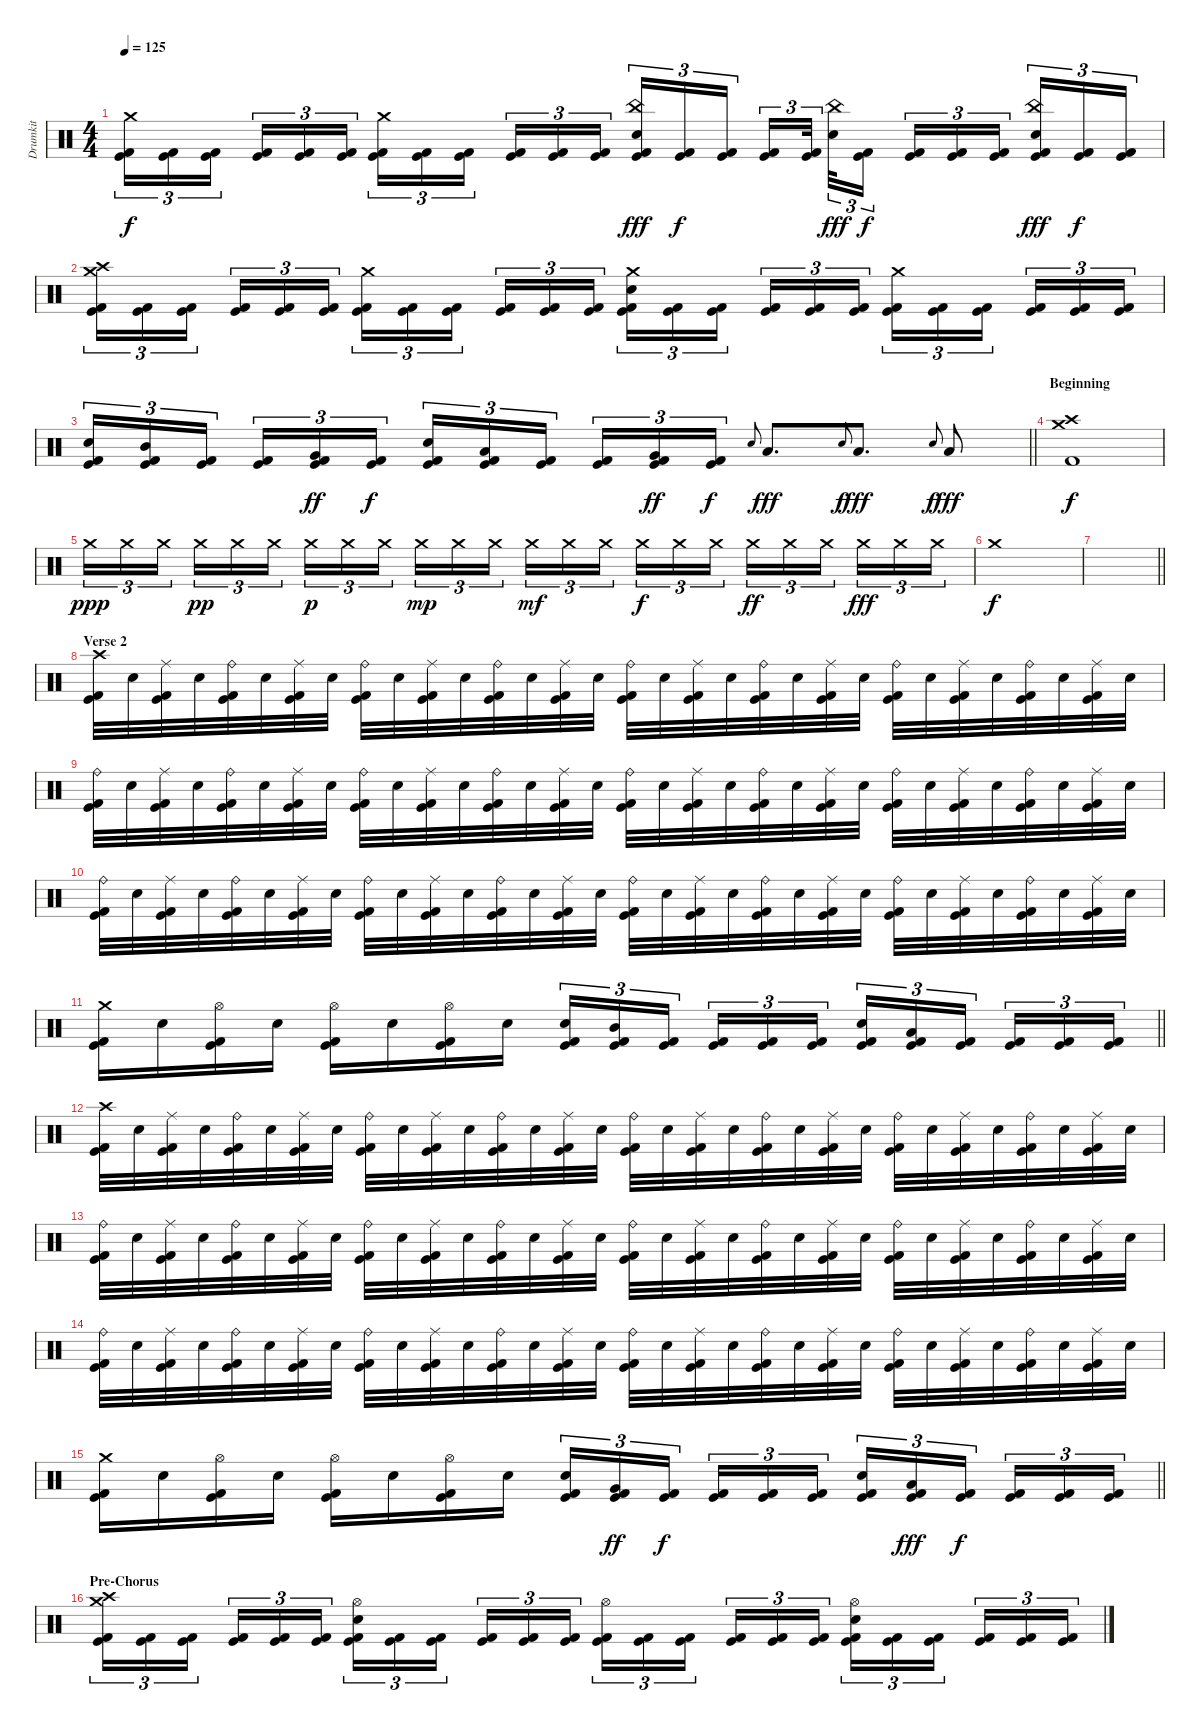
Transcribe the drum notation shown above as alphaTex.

\track ("Drumkit" "Drumkit") {instrument percussion}
\staff {score}
\articulation defaults
\ts (4 4)
\tempo 125
\clef neutral
\ks c
("Crash medium (hit)" "Kick (hit)" "Kick (hit) 2").16{tu (3 2) dy f} ("Kick (hit)" "Kick (hit) 2").16{tu (3 2)} ("Kick (hit)" "Kick (hit) 2").16{tu (3 2) beam splitsecondary} ("Kick (hit)" "Kick (hit) 2").16{tu (3 2)} ("Kick (hit)" "Kick (hit) 2").16{tu (3 2)} ("Kick (hit)" "Kick (hit) 2").16{tu (3 2)} ("Crash medium (hit)" "Kick (hit)" "Kick (hit) 2").16{tu (3 2)} ("Kick (hit)" "Kick (hit) 2").16{tu (3 2)} ("Kick (hit)" "Kick (hit) 2").16{tu (3 2) beam splitsecondary} ("Kick (hit)" "Kick (hit) 2").16{tu (3 2)} ("Kick (hit)" "Kick (hit) 2").16{tu (3 2)} ("Kick (hit)" "Kick (hit) 2").16{tu (3 2)} ("China (hit)" "Electric Snare (hit)" "Kick (hit)" "Kick (hit) 2").16{tu (3 2) dy fff} ("Kick (hit)" "Kick (hit) 2").16{tu (3 2) dy f} ("Kick (hit)" "Kick (hit) 2").16{tu (3 2) beam splitsecondary} ("Kick (hit)" "Kick (hit) 2").16{tu (3 2)} ("Kick (hit)" "Kick (hit) 2").32{tu (3 2) beam splitsecondary} ("China (hit)" "Electric Snare (hit)").32{tu (3 2) dy fff} ("Kick (hit)" "Kick (hit) 2").16{tu (3 2) dy f} ("Kick (hit)" "Kick (hit) 2").16{tu (3 2)} ("Kick (hit)" "Kick (hit) 2").16{tu (3 2)} ("Kick (hit)" "Kick (hit) 2").16{tu (3 2) beam splitsecondary} ("China (hit)" "Electric Snare (hit)" "Kick (hit)" "Kick (hit) 2").16{tu (3 2) dy fff} ("Kick (hit)" "Kick (hit) 2").16{tu (3 2) dy f} ("Kick (hit)" "Kick (hit) 2").16{tu (3 2)} |
("Crash high (hit)" "Crash medium (hit)" "Kick (hit)" "Kick (hit) 2").16{tu (3 2)} ("Kick (hit)" "Kick (hit) 2").16{tu (3 2)} ("Kick (hit)" "Kick (hit) 2").16{tu (3 2) beam splitsecondary} ("Kick (hit)" "Kick (hit) 2").16{tu (3 2)} ("Kick (hit)" "Kick (hit) 2").16{tu (3 2)} ("Kick (hit)" "Kick (hit) 2").16{tu (3 2)} ("Crash medium (hit)" "Kick (hit)" "Kick (hit) 2").16{tu (3 2)} ("Kick (hit)" "Kick (hit) 2").16{tu (3 2)} ("Kick (hit)" "Kick (hit) 2").16{tu (3 2) beam splitsecondary} ("Kick (hit)" "Kick (hit) 2").16{tu (3 2)} ("Kick (hit)" "Kick (hit) 2").16{tu (3 2)} ("Kick (hit)" "Kick (hit) 2").16{tu (3 2)} ("Crash medium (hit)" "Electric Snare (hit)" "Kick (hit)" "Kick (hit) 2").16{tu (3 2)} ("Kick (hit)" "Kick (hit) 2").16{tu (3 2)} ("Kick (hit)" "Kick (hit) 2").16{tu (3 2) beam splitsecondary} ("Kick (hit)" "Kick (hit) 2").16{tu (3 2)} ("Kick (hit)" "Kick (hit) 2").16{tu (3 2)} ("Kick (hit)" "Kick (hit) 2").16{tu (3 2)} ("Crash medium (hit)" "Kick (hit)" "Kick (hit) 2").16{tu (3 2)} ("Kick (hit)" "Kick (hit) 2").16{tu (3 2)} ("Kick (hit)" "Kick (hit) 2").16{tu (3 2) beam splitsecondary} ("Kick (hit)" "Kick (hit) 2").16{tu (3 2)} ("Kick (hit)" "Kick (hit) 2").16{tu (3 2)} ("Kick (hit)" "Kick (hit) 2").16{tu (3 2)} |
\barLineRight lightlight
("Electric Snare (hit)" "Kick (hit)" "Kick (hit) 2").16{tu (3 2)} ("Mid Tom (hit)" "Kick (hit)" "Kick (hit) 2").16{tu (3 2)} ("Kick (hit)" "Kick (hit) 2").16{tu (3 2) beam splitsecondary} ("Kick (hit)" "Kick (hit) 2").16{tu (3 2)} ("Very Low Tom (hit)" "Kick (hit)" "Kick (hit) 2").16{tu (3 2) dy ff} ("Kick (hit)" "Kick (hit) 2").16{tu (3 2) dy f} ("Electric Snare (hit)" "Kick (hit)" "Kick (hit) 2").16{tu (3 2)} ("Low Tom (hit)" "Kick (hit)" "Kick (hit) 2").16{tu (3 2)} ("Kick (hit)" "Kick (hit) 2").16{tu (3 2) beam splitsecondary} ("Kick (hit)" "Kick (hit) 2").16{tu (3 2)} ("Very Low Tom (hit)" "Kick (hit)" "Kick (hit) 2").16{tu (3 2) dy ff} ("Kick (hit)" "Kick (hit) 2").16{tu (3 2) dy f} "Electric Snare (hit)".8{gr onbeat} "Low Floor Tom (hit)".8{d dy fff} "Electric Snare (hit)".8{gr onbeat dy f} "Low Floor Tom (hit)".8{d dy fff} "Electric Snare (hit)".8{gr onbeat dy f} "Low Floor Tom (hit)".8{dy fff} |
\section ("" "Beginning")
("Crash high (hit)" "Crash medium (hit)" "Kick (hit) 2").1{dy f} |
"Crash medium (hit)".16{tu (3 2) dy ppp} "Crash medium (hit)".16{tu (3 2)} "Crash medium (hit)".16{tu (3 2) beam splitsecondary} "Crash medium (hit)".16{tu (3 2) dy pp} "Crash medium (hit)".16{tu (3 2)} "Crash medium (hit)".16{tu (3 2)} "Crash medium (hit)".16{tu (3 2) dy p} "Crash medium (hit)".16{tu (3 2)} "Crash medium (hit)".16{tu (3 2) beam splitsecondary} "Crash medium (hit)".16{tu (3 2) dy mp} "Crash medium (hit)".16{tu (3 2)} "Crash medium (hit)".16{tu (3 2)} "Crash medium (hit)".16{tu (3 2) dy mf} "Crash medium (hit)".16{tu (3 2)} "Crash medium (hit)".16{tu (3 2) beam splitsecondary} "Crash medium (hit)".16{tu (3 2) dy f} "Crash medium (hit)".16{tu (3 2)} "Crash medium (hit)".16{tu (3 2)} "Crash medium (hit)".16{tu (3 2) dy ff} "Crash medium (hit)".16{tu (3 2)} "Crash medium (hit)".16{tu (3 2) beam splitsecondary} "Crash medium (hit)".16{tu (3 2) dy fff} "Crash medium (hit)".16{tu (3 2)} "Crash medium (hit)".16{tu (3 2)} |
"Crash medium (hit)".1{dy f} |
\barLineRight lightlight
|
\section ("" "Verse 2")
("Crash high (hit)" "Kick (hit)" "Kick (hit) 2").32 "Electric Snare (hit)".32 ("Ride (middle)" "Kick (hit)" "Kick (hit) 2").32 "Electric Snare (hit)".32 ("Ride (bell)" "Kick (hit)" "Kick (hit) 2").32 "Electric Snare (hit)".32 ("Ride (middle)" "Kick (hit)" "Kick (hit) 2").32 "Electric Snare (hit)".32 ("Ride (bell)" "Kick (hit)" "Kick (hit) 2").32 "Electric Snare (hit)".32 ("Ride (middle)" "Kick (hit)" "Kick (hit) 2").32 "Electric Snare (hit)".32 ("Ride (bell)" "Kick (hit)" "Kick (hit) 2").32 "Electric Snare (hit)".32 ("Ride (middle)" "Kick (hit)" "Kick (hit) 2").32 "Electric Snare (hit)".32 ("Ride (bell)" "Kick (hit)" "Kick (hit) 2").32 "Electric Snare (hit)".32 ("Ride (middle)" "Kick (hit)" "Kick (hit) 2").32 "Electric Snare (hit)".32 ("Ride (bell)" "Kick (hit)" "Kick (hit) 2").32 "Electric Snare (hit)".32 ("Ride (middle)" "Kick (hit)" "Kick (hit) 2").32 "Electric Snare (hit)".32 ("Ride (bell)" "Kick (hit)" "Kick (hit) 2").32 "Electric Snare (hit)".32 ("Ride (middle)" "Kick (hit)" "Kick (hit) 2").32 "Electric Snare (hit)".32 ("Ride (bell)" "Kick (hit)" "Kick (hit) 2").32 "Electric Snare (hit)".32 ("Ride (middle)" "Kick (hit)" "Kick (hit) 2").32 "Electric Snare (hit)".32 |
("Ride (bell)" "Kick (hit)" "Kick (hit) 2").32 "Electric Snare (hit)".32 ("Ride (middle)" "Kick (hit)" "Kick (hit) 2").32 "Electric Snare (hit)".32 ("Ride (bell)" "Kick (hit)" "Kick (hit) 2").32 "Electric Snare (hit)".32 ("Ride (middle)" "Kick (hit)" "Kick (hit) 2").32 "Electric Snare (hit)".32 ("Ride (bell)" "Kick (hit)" "Kick (hit) 2").32 "Electric Snare (hit)".32 ("Ride (middle)" "Kick (hit)" "Kick (hit) 2").32 "Electric Snare (hit)".32 ("Ride (bell)" "Kick (hit)" "Kick (hit) 2").32 "Electric Snare (hit)".32 ("Ride (middle)" "Kick (hit)" "Kick (hit) 2").32 "Electric Snare (hit)".32 ("Ride (bell)" "Kick (hit)" "Kick (hit) 2").32 "Electric Snare (hit)".32 ("Ride (middle)" "Kick (hit)" "Kick (hit) 2").32 "Electric Snare (hit)".32 ("Ride (bell)" "Kick (hit)" "Kick (hit) 2").32 "Electric Snare (hit)".32 ("Ride (middle)" "Kick (hit)" "Kick (hit) 2").32 "Electric Snare (hit)".32 ("Ride (bell)" "Kick (hit)" "Kick (hit) 2").32 "Electric Snare (hit)".32 ("Ride (middle)" "Kick (hit)" "Kick (hit) 2").32 "Electric Snare (hit)".32 ("Ride (bell)" "Kick (hit)" "Kick (hit) 2").32 "Electric Snare (hit)".32 ("Ride (middle)" "Kick (hit)" "Kick (hit) 2").32 "Electric Snare (hit)".32 |
("Ride (bell)" "Kick (hit)" "Kick (hit) 2").32 "Electric Snare (hit)".32 ("Ride (middle)" "Kick (hit)" "Kick (hit) 2").32 "Electric Snare (hit)".32 ("Ride (bell)" "Kick (hit)" "Kick (hit) 2").32 "Electric Snare (hit)".32 ("Ride (middle)" "Kick (hit)" "Kick (hit) 2").32 "Electric Snare (hit)".32 ("Ride (bell)" "Kick (hit)" "Kick (hit) 2").32 "Electric Snare (hit)".32 ("Ride (middle)" "Kick (hit)" "Kick (hit) 2").32 "Electric Snare (hit)".32 ("Ride (bell)" "Kick (hit)" "Kick (hit) 2").32 "Electric Snare (hit)".32 ("Ride (middle)" "Kick (hit)" "Kick (hit) 2").32 "Electric Snare (hit)".32 ("Ride (bell)" "Kick (hit)" "Kick (hit) 2").32 "Electric Snare (hit)".32 ("Ride (middle)" "Kick (hit)" "Kick (hit) 2").32 "Electric Snare (hit)".32 ("Ride (bell)" "Kick (hit)" "Kick (hit) 2").32 "Electric Snare (hit)".32 ("Ride (middle)" "Kick (hit)" "Kick (hit) 2").32 "Electric Snare (hit)".32 ("Ride (bell)" "Kick (hit)" "Kick (hit) 2").32 "Electric Snare (hit)".32 ("Ride (middle)" "Kick (hit)" "Kick (hit) 2").32 "Electric Snare (hit)".32 ("Ride (bell)" "Kick (hit)" "Kick (hit) 2").32 "Electric Snare (hit)".32 ("Ride (middle)" "Kick (hit)" "Kick (hit) 2").32 "Electric Snare (hit)".32 |
\barLineRight lightlight
("Crash medium (hit)" "Kick (hit)" "Kick (hit) 2").16 "Electric Snare (hit)".16 ("Hi-Hat (open)" "Kick (hit)" "Kick (hit) 2").16 "Electric Snare (hit)".16 ("Hi-Hat (open)" "Kick (hit)" "Kick (hit) 2").16 "Electric Snare (hit)".16 ("Hi-Hat (open)" "Kick (hit)" "Kick (hit) 2").16 "Electric Snare (hit)".16 ("Electric Snare (hit)" "Kick (hit)" "Kick (hit) 2").16{tu (3 2)} ("Mid Tom (hit)" "Kick (hit)" "Kick (hit) 2").16{tu (3 2)} ("Kick (hit)" "Kick (hit) 2").16{tu (3 2) beam splitsecondary} ("Kick (hit)" "Kick (hit) 2").16{tu (3 2)} ("Kick (hit)" "Kick (hit) 2").16{tu (3 2)} ("Kick (hit)" "Kick (hit) 2").16{tu (3 2)} ("Electric Snare (hit)" "Kick (hit)" "Kick (hit) 2").16{tu (3 2)} ("Low Tom (hit)" "Kick (hit)" "Kick (hit) 2").16{tu (3 2)} ("Kick (hit)" "Kick (hit) 2").16{tu (3 2) beam splitsecondary} ("Kick (hit)" "Kick (hit) 2").16{tu (3 2)} ("Kick (hit)" "Kick (hit) 2").16{tu (3 2)} ("Kick (hit)" "Kick (hit) 2").16{tu (3 2)} |
("Crash high (hit)" "Kick (hit)" "Kick (hit) 2").32 "Electric Snare (hit)".32 ("Ride (middle)" "Kick (hit)" "Kick (hit) 2").32 "Electric Snare (hit)".32 ("Ride (bell)" "Kick (hit)" "Kick (hit) 2").32 "Electric Snare (hit)".32 ("Ride (middle)" "Kick (hit)" "Kick (hit) 2").32 "Electric Snare (hit)".32 ("Ride (bell)" "Kick (hit)" "Kick (hit) 2").32 "Electric Snare (hit)".32 ("Ride (middle)" "Kick (hit)" "Kick (hit) 2").32 "Electric Snare (hit)".32 ("Ride (bell)" "Kick (hit)" "Kick (hit) 2").32 "Electric Snare (hit)".32 ("Ride (middle)" "Kick (hit)" "Kick (hit) 2").32 "Electric Snare (hit)".32 ("Ride (bell)" "Kick (hit)" "Kick (hit) 2").32 "Electric Snare (hit)".32 ("Ride (middle)" "Kick (hit)" "Kick (hit) 2").32 "Electric Snare (hit)".32 ("Ride (bell)" "Kick (hit)" "Kick (hit) 2").32 "Electric Snare (hit)".32 ("Ride (middle)" "Kick (hit)" "Kick (hit) 2").32 "Electric Snare (hit)".32 ("Ride (bell)" "Kick (hit)" "Kick (hit) 2").32 "Electric Snare (hit)".32 ("Ride (middle)" "Kick (hit)" "Kick (hit) 2").32 "Electric Snare (hit)".32 ("Ride (bell)" "Kick (hit)" "Kick (hit) 2").32 "Electric Snare (hit)".32 ("Ride (middle)" "Kick (hit)" "Kick (hit) 2").32 "Electric Snare (hit)".32 |
("Ride (bell)" "Kick (hit)" "Kick (hit) 2").32 "Electric Snare (hit)".32 ("Ride (middle)" "Kick (hit)" "Kick (hit) 2").32 "Electric Snare (hit)".32 ("Ride (bell)" "Kick (hit)" "Kick (hit) 2").32 "Electric Snare (hit)".32 ("Ride (middle)" "Kick (hit)" "Kick (hit) 2").32 "Electric Snare (hit)".32 ("Ride (bell)" "Kick (hit)" "Kick (hit) 2").32 "Electric Snare (hit)".32 ("Ride (middle)" "Kick (hit)" "Kick (hit) 2").32 "Electric Snare (hit)".32 ("Ride (bell)" "Kick (hit)" "Kick (hit) 2").32 "Electric Snare (hit)".32 ("Ride (middle)" "Kick (hit)" "Kick (hit) 2").32 "Electric Snare (hit)".32 ("Ride (bell)" "Kick (hit)" "Kick (hit) 2").32 "Electric Snare (hit)".32 ("Ride (middle)" "Kick (hit)" "Kick (hit) 2").32 "Electric Snare (hit)".32 ("Ride (bell)" "Kick (hit)" "Kick (hit) 2").32 "Electric Snare (hit)".32 ("Ride (middle)" "Kick (hit)" "Kick (hit) 2").32 "Electric Snare (hit)".32 ("Ride (bell)" "Kick (hit)" "Kick (hit) 2").32 "Electric Snare (hit)".32 ("Ride (middle)" "Kick (hit)" "Kick (hit) 2").32 "Electric Snare (hit)".32 ("Ride (bell)" "Kick (hit)" "Kick (hit) 2").32 "Electric Snare (hit)".32 ("Ride (middle)" "Kick (hit)" "Kick (hit) 2").32 "Electric Snare (hit)".32 |
("Ride (bell)" "Kick (hit)" "Kick (hit) 2").32 "Electric Snare (hit)".32 ("Ride (middle)" "Kick (hit)" "Kick (hit) 2").32 "Electric Snare (hit)".32 ("Ride (bell)" "Kick (hit)" "Kick (hit) 2").32 "Electric Snare (hit)".32 ("Ride (middle)" "Kick (hit)" "Kick (hit) 2").32 "Electric Snare (hit)".32 ("Ride (bell)" "Kick (hit)" "Kick (hit) 2").32 "Electric Snare (hit)".32 ("Ride (middle)" "Kick (hit)" "Kick (hit) 2").32 "Electric Snare (hit)".32 ("Ride (bell)" "Kick (hit)" "Kick (hit) 2").32 "Electric Snare (hit)".32 ("Ride (middle)" "Kick (hit)" "Kick (hit) 2").32 "Electric Snare (hit)".32 ("Ride (bell)" "Kick (hit)" "Kick (hit) 2").32 "Electric Snare (hit)".32 ("Ride (middle)" "Kick (hit)" "Kick (hit) 2").32 "Electric Snare (hit)".32 ("Ride (bell)" "Kick (hit)" "Kick (hit) 2").32 "Electric Snare (hit)".32 ("Ride (middle)" "Kick (hit)" "Kick (hit) 2").32 "Electric Snare (hit)".32 ("Ride (bell)" "Kick (hit)" "Kick (hit) 2").32 "Electric Snare (hit)".32 ("Ride (middle)" "Kick (hit)" "Kick (hit) 2").32 "Electric Snare (hit)".32 ("Ride (bell)" "Kick (hit)" "Kick (hit) 2").32 "Electric Snare (hit)".32 ("Ride (middle)" "Kick (hit)" "Kick (hit) 2").32 "Electric Snare (hit)".32 |
\barLineRight lightlight
("Crash medium (hit)" "Kick (hit)" "Kick (hit) 2").16 "Electric Snare (hit)".16 ("Hi-Hat (open)" "Kick (hit)" "Kick (hit) 2").16 "Electric Snare (hit)".16 ("Hi-Hat (open)" "Kick (hit)" "Kick (hit) 2").16 "Electric Snare (hit)".16 ("Hi-Hat (open)" "Kick (hit)" "Kick (hit) 2").16 "Electric Snare (hit)".16 ("Electric Snare (hit)" "Kick (hit)" "Kick (hit) 2").16{tu (3 2)} ("Very Low Tom (hit)" "Kick (hit)" "Kick (hit) 2").16{tu (3 2) dy ff} ("Kick (hit)" "Kick (hit) 2").16{tu (3 2) dy f beam splitsecondary} ("Kick (hit)" "Kick (hit) 2").16{tu (3 2)} ("Kick (hit)" "Kick (hit) 2").16{tu (3 2)} ("Kick (hit)" "Kick (hit) 2").16{tu (3 2)} ("Electric Snare (hit)" "Kick (hit)" "Kick (hit) 2").16{tu (3 2)} ("Low Floor Tom (hit)" "Kick (hit)" "Kick (hit) 2").16{tu (3 2) dy fff} ("Kick (hit)" "Kick (hit) 2").16{tu (3 2) dy f beam splitsecondary} ("Kick (hit)" "Kick (hit) 2").16{tu (3 2)} ("Kick (hit)" "Kick (hit) 2").16{tu (3 2)} ("Kick (hit)" "Kick (hit) 2").16{tu (3 2)} |
\section ("" "Pre-Chorus")
("Crash high (hit)" "Crash medium (hit)" "Kick (hit)" "Kick (hit) 2").16{tu (3 2)} ("Kick (hit)" "Kick (hit) 2").16{tu (3 2)} ("Kick (hit)" "Kick (hit) 2").16{tu (3 2) beam splitsecondary} ("Kick (hit)" "Kick (hit) 2").16{tu (3 2)} ("Kick (hit)" "Kick (hit) 2").16{tu (3 2)} ("Kick (hit)" "Kick (hit) 2").16{tu (3 2)} ("Hi-Hat (open)" "Electric Snare (hit)" "Kick (hit)" "Kick (hit) 2").16{tu (3 2)} ("Kick (hit)" "Kick (hit) 2").16{tu (3 2)} ("Kick (hit)" "Kick (hit) 2").16{tu (3 2) beam splitsecondary} ("Kick (hit)" "Kick (hit) 2").16{tu (3 2)} ("Kick (hit)" "Kick (hit) 2").16{tu (3 2)} ("Kick (hit)" "Kick (hit) 2").16{tu (3 2)} ("Hi-Hat (open)" "Kick (hit)" "Kick (hit) 2").16{tu (3 2)} ("Kick (hit)" "Kick (hit) 2").16{tu (3 2)} ("Kick (hit)" "Kick (hit) 2").16{tu (3 2) beam splitsecondary} ("Kick (hit)" "Kick (hit) 2").16{tu (3 2)} ("Kick (hit)" "Kick (hit) 2").16{tu (3 2)} ("Kick (hit)" "Kick (hit) 2").16{tu (3 2)} ("Hi-Hat (open)" "Electric Snare (hit)" "Kick (hit)" "Kick (hit) 2").16{tu (3 2)} ("Kick (hit)" "Kick (hit) 2").16{tu (3 2)} ("Kick (hit)" "Kick (hit) 2").16{tu (3 2) beam splitsecondary} ("Kick (hit)" "Kick (hit) 2").16{tu (3 2)} ("Kick (hit)" "Kick (hit) 2").16{tu (3 2)} ("Kick (hit)" "Kick (hit) 2").16{tu (3 2)}
